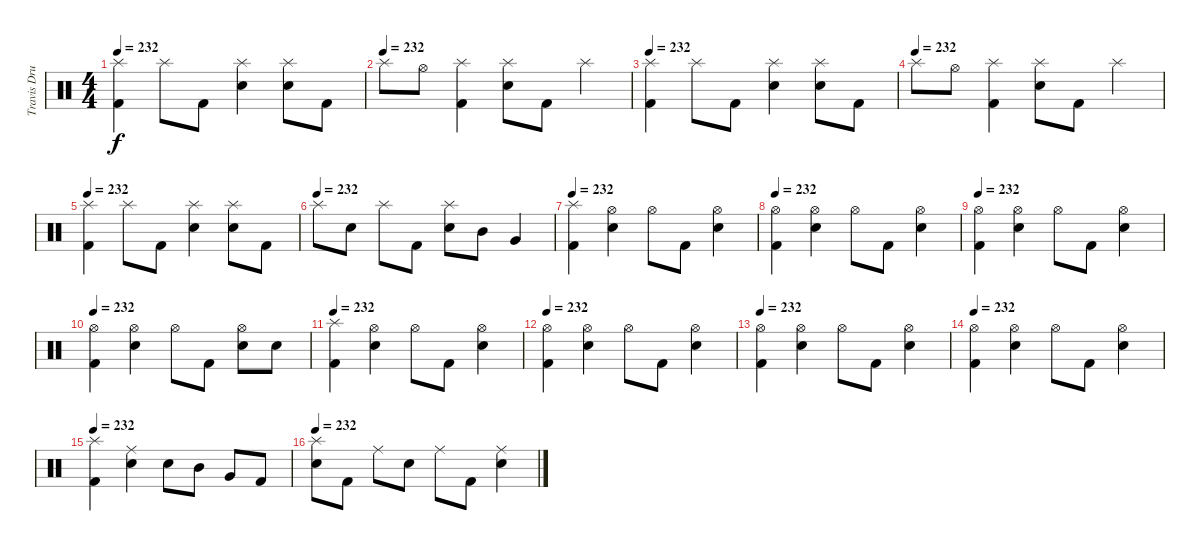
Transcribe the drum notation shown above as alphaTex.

\track ("Travis Drums" "Travis Dru") {instrument percussion}
\staff {score}
\articulation defaults
\ts (4 4)
\tempo 232
\clef neutral
\ks c
("Splash (hit)" "Kick (hit) 2").4{dy f} "Splash (hit)".8 "Kick (hit) 2".8 ("Splash (hit)" "Electric Snare (hit)").4 ("Splash (hit)" "Electric Snare (hit)").8 "Kick (hit) 2".8 |
\tempo (232)
"Splash (hit)".8 "Hi-Hat (open)".8 ("Splash (hit)" "Kick (hit) 2").4 ("Splash (hit)" "Electric Snare (hit)").8 "Kick (hit) 2".8 "Splash (hit)".4 |
\tempo 232
("Splash (hit)" "Kick (hit) 2").4 "Splash (hit)".8 "Kick (hit) 2".8 ("Splash (hit)" "Electric Snare (hit)").4 ("Splash (hit)" "Electric Snare (hit)").8 "Kick (hit) 2".8 |
\tempo (232)
"Splash (hit)".8 "Hi-Hat (open)".8 ("Splash (hit)" "Kick (hit) 2").4 ("Splash (hit)" "Electric Snare (hit)").8 "Kick (hit) 2".8 "Splash (hit)".4 |
\tempo 232
("Splash (hit)" "Kick (hit) 2").4 "Splash (hit)".8 "Kick (hit) 2".8 ("Splash (hit)" "Electric Snare (hit)").4 ("Splash (hit)" "Electric Snare (hit)").8 "Kick (hit) 2".8 |
\tempo (232)
"Splash (hit)".8 "Electric Snare (hit)".8 "Splash (hit)".8 "Kick (hit) 2".8 ("Splash (hit)" "Electric Snare (hit)").8 "Mid Tom (hit)".8 "Very Low Tom (hit)".4 |
\tempo 232
("Splash (hit)" "Kick (hit) 2").4 ("Hi-Hat (open)" "Electric Snare (hit)").4 "Hi-Hat (open)".8 "Kick (hit) 2".8 ("Hi-Hat (open)" "Electric Snare (hit)").4 |
\tempo 232
("Hi-Hat (open)" "Kick (hit) 2").4 ("Hi-Hat (open)" "Electric Snare (hit)").4 "Hi-Hat (open)".8 "Kick (hit) 2".8 ("Hi-Hat (open)" "Electric Snare (hit)").4 |
\tempo 232
("Hi-Hat (open)" "Kick (hit) 2").4 ("Hi-Hat (open)" "Electric Snare (hit)").4 "Hi-Hat (open)".8 "Kick (hit) 2".8 ("Hi-Hat (open)" "Electric Snare (hit)").4 |
\tempo 232
("Hi-Hat (open)" "Kick (hit) 2").4 ("Hi-Hat (open)" "Electric Snare (hit)").4 "Hi-Hat (open)".8 "Kick (hit) 2".8 ("Hi-Hat (open)" "Electric Snare (hit)").8 "Electric Snare (hit)".8 |
\tempo 232
("Splash (hit)" "Kick (hit) 2").4 ("Hi-Hat (open)" "Electric Snare (hit)").4 "Hi-Hat (open)".8 "Kick (hit) 2".8 ("Hi-Hat (open)" "Electric Snare (hit)").4 |
\tempo 232
("Hi-Hat (open)" "Kick (hit) 2").4 ("Hi-Hat (open)" "Electric Snare (hit)").4 "Hi-Hat (open)".8 "Kick (hit) 2".8 ("Hi-Hat (open)" "Electric Snare (hit)").4 |
\tempo 232
("Hi-Hat (open)" "Kick (hit) 2").4 ("Hi-Hat (open)" "Electric Snare (hit)").4 "Hi-Hat (open)".8 "Kick (hit) 2".8 ("Hi-Hat (open)" "Electric Snare (hit)").4 |
\tempo 232
("Hi-Hat (open)" "Kick (hit) 2").4 ("Hi-Hat (open)" "Electric Snare (hit)").4 "Hi-Hat (open)".8 "Kick (hit) 2".8 ("Hi-Hat (open)" "Electric Snare (hit)").4 |
\tempo 232
("Splash (hit)" "Kick (hit) 2").4 ("Ride (middle)" "Electric Snare (hit)").4 "Electric Snare (hit)".8 "Mid Tom (hit)".8 "Very Low Tom (hit)".8 "Kick (hit) 2".8 |
\tempo 232
("Splash (hit)" "Electric Snare (hit)").8 "Kick (hit) 2".8 "Ride (middle)".8 "Electric Snare (hit)".8 "Ride (middle)".8 "Kick (hit) 2".8 ("Ride (middle)" "Electric Snare (hit)").4
